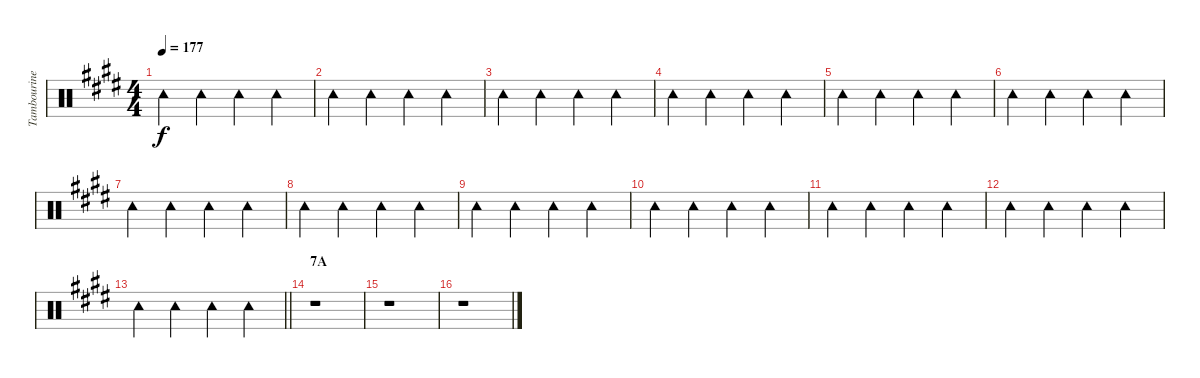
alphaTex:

\track ("Tambourine" "Tambourine") {instrument percussion}
\staff {score}
\articulation defaults
\ts (4 4)
\tempo 177
\clef neutral
\ks e "Tambourine (hit)".4{dy f} "Tambourine (hit)".4 "Tambourine (hit)".4 "Tambourine (hit)".4
|
"Tambourine (hit)".4 "Tambourine (hit)".4 "Tambourine (hit)".4 "Tambourine (hit)".4 |
"Tambourine (hit)".4 "Tambourine (hit)".4 "Tambourine (hit)".4 "Tambourine (hit)".4 |
"Tambourine (hit)".4 "Tambourine (hit)".4 "Tambourine (hit)".4 "Tambourine (hit)".4 |
"Tambourine (hit)".4 "Tambourine (hit)".4 "Tambourine (hit)".4 "Tambourine (hit)".4 |
"Tambourine (hit)".4 "Tambourine (hit)".4 "Tambourine (hit)".4 "Tambourine (hit)".4 |
"Tambourine (hit)".4 "Tambourine (hit)".4 "Tambourine (hit)".4 "Tambourine (hit)".4 |
"Tambourine (hit)".4 "Tambourine (hit)".4 "Tambourine (hit)".4 "Tambourine (hit)".4 |
"Tambourine (hit)".4 "Tambourine (hit)".4 "Tambourine (hit)".4 "Tambourine (hit)".4 |
"Tambourine (hit)".4 "Tambourine (hit)".4 "Tambourine (hit)".4 "Tambourine (hit)".4 |
"Tambourine (hit)".4 "Tambourine (hit)".4 "Tambourine (hit)".4 "Tambourine (hit)".4 |
"Tambourine (hit)".4 "Tambourine (hit)".4 "Tambourine (hit)".4 "Tambourine (hit)".4 |
\barLineRight lightlight "Tambourine (hit)".4 "Tambourine (hit)".4 "Tambourine (hit)".4 "Tambourine (hit)".4
|
\section ("" "7A")
r.1 |
r.1 |
r.1
